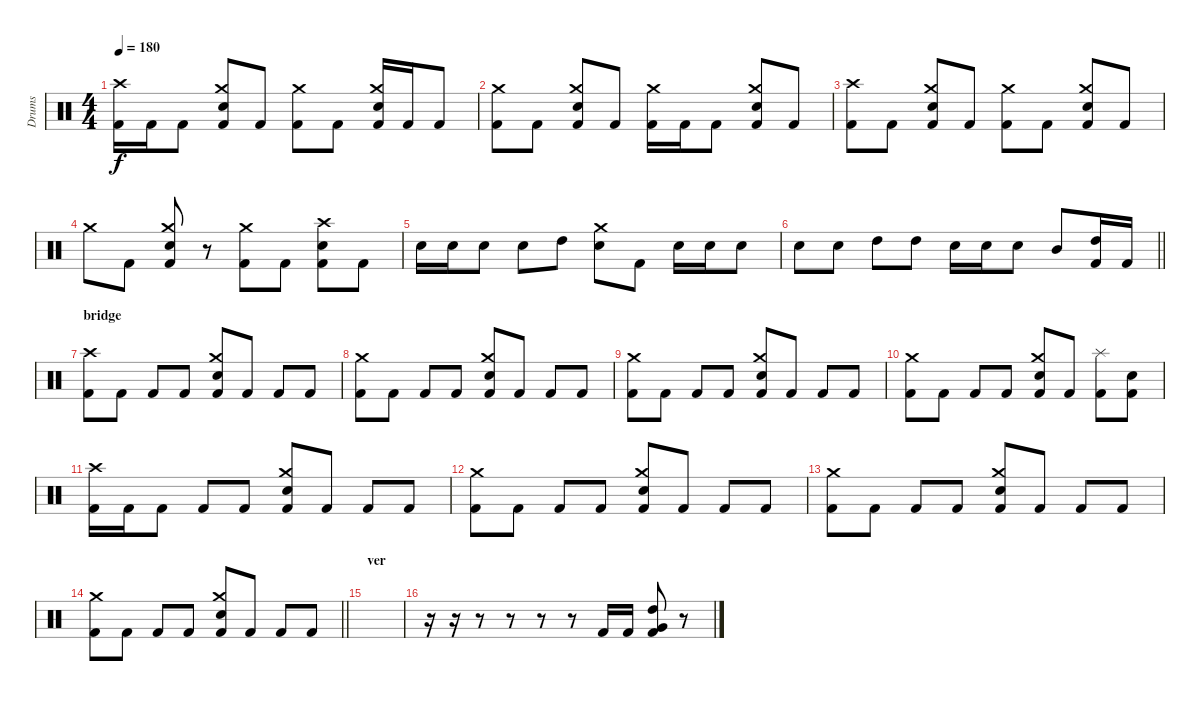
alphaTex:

\track ("Drums" "Drums") {instrument percussion}
\staff {score}
\articulation defaults
\ts (4 4)
\tempo 180
\clef neutral
\ks c
("Crash high (hit)" "Kick (hit) 2").16{dy f} "Kick (hit) 2".16 "Kick (hit) 2".8 ("Crash medium (hit)" "Electric Snare (hit)" "Kick (hit) 2").8 "Kick (hit) 2".8 ("Crash medium (hit)" "Kick (hit) 2").8 "Kick (hit) 2".8 ("Crash medium (hit)" "Electric Snare (hit)" "Kick (hit) 2").16 "Kick (hit) 2".16 "Kick (hit) 2".8 |
("Crash medium (hit)" "Kick (hit) 2").8 "Kick (hit) 2".8 ("Crash medium (hit)" "Electric Snare (hit)" "Kick (hit) 2").8 "Kick (hit) 2".8 ("Crash medium (hit)" "Kick (hit) 2").16 "Kick (hit) 2".16 "Kick (hit) 2".8 ("Crash medium (hit)" "Electric Snare (hit)" "Kick (hit) 2").8 "Kick (hit) 2".8 |
("Crash high (hit)" "Kick (hit) 2").8 "Kick (hit) 2".8 ("Crash medium (hit)" "Electric Snare (hit)" "Kick (hit) 2").8 "Kick (hit) 2".8 ("Crash medium (hit)" "Kick (hit) 2").8 "Kick (hit) 2".8 ("Crash medium (hit)" "Electric Snare (hit)" "Kick (hit) 2").8 "Kick (hit) 2".8 |
"Crash medium (hit)".8 "Kick (hit) 2".8 ("Crash medium (hit)" "Electric Snare (hit)" "Kick (hit) 2").8 r.8 ("Crash medium (hit)" "Kick (hit) 2").8 "Kick (hit) 2".8 ("Crash high (hit)" "Electric Snare (hit)" "Kick (hit) 2").8 "Kick (hit) 2".8 |
"Electric Snare (hit)".16 "Electric Snare (hit)".16 "Electric Snare (hit)".8 "Electric Snare (hit)".8 "High Tom (hit)".8 ("Crash medium (hit)" "Electric Snare (hit)").8 "Kick (hit) 2".8 "Electric Snare (hit)".16 "Electric Snare (hit)".16 "Electric Snare (hit)".8 |
\barLineRight lightlight "Electric Snare (hit)".8 "Electric Snare (hit)".8 "High Tom (hit)".8 "High Tom (hit)".8 "Electric Snare (hit)".16 "Electric Snare (hit)".16 "Electric Snare (hit)".8 "Mid Tom (hit)".8
("High Tom (hit)" "Kick (hit) 2").16 "Kick (hit) 2".16 |
\section ("" "bridge")
("Crash high (hit)" "Kick (hit) 2").8 "Kick (hit) 2".8 "Kick (hit) 2".8 "Kick (hit) 2".8 ("Crash medium (hit)" "Electric Snare (hit)" "Kick (hit) 2").8 "Kick (hit) 2".8 "Kick (hit) 2".8 "Kick (hit) 2".8 |
("Crash medium (hit)" "Kick (hit) 2").8 "Kick (hit) 2".8 "Kick (hit) 2".8 "Kick (hit) 2".8 ("Crash medium (hit)" "Electric Snare (hit)" "Kick (hit) 2").8 "Kick (hit) 2".8 "Kick (hit) 2".8 "Kick (hit) 2".8 |
("Crash medium (hit)" "Kick (hit) 2").8 "Kick (hit) 2".8 "Kick (hit) 2".8 "Kick (hit) 2".8 ("Crash medium (hit)" "Electric Snare (hit)" "Kick (hit) 2").8 "Kick (hit) 2".8 "Kick (hit) 2".8 "Kick (hit) 2".8 |
("Crash medium (hit)" "Kick (hit) 2").8 "Kick (hit) 2".8 "Kick (hit) 2".8 "Kick (hit) 2".8 ("Crash medium (hit)" "Electric Snare (hit)" "Kick (hit) 2").8 "Kick (hit) 2".8 ("Splash (hit)" "Kick (hit) 2").8 ("Electric Snare (hit)" "Kick (hit) 2").8 |
("Crash high (hit)" "Kick (hit) 2").16 "Kick (hit) 2".16 "Kick (hit) 2".8 "Kick (hit) 2".8 "Kick (hit) 2".8 ("Crash medium (hit)" "Electric Snare (hit)" "Kick (hit) 2").8 "Kick (hit) 2".8 "Kick (hit) 2".8 "Kick (hit) 2".8 |
("Crash medium (hit)" "Kick (hit) 2").8 "Kick (hit) 2".8 "Kick (hit) 2".8 "Kick (hit) 2".8 ("Crash medium (hit)" "Electric Snare (hit)" "Kick (hit) 2").8 "Kick (hit) 2".8 "Kick (hit) 2".8 "Kick (hit) 2".8 |
("Crash medium (hit)" "Kick (hit) 2").8 "Kick (hit) 2".8 "Kick (hit) 2".8 "Kick (hit) 2".8 ("Crash medium (hit)" "Electric Snare (hit)" "Kick (hit) 2").8 "Kick (hit) 2".8 "Kick (hit) 2".8 "Kick (hit) 2".8 |
\barLineRight lightlight
("Crash medium (hit)" "Kick (hit) 2").8 "Kick (hit) 2".8 "Kick (hit) 2".8 "Kick (hit) 2".8 ("Crash medium (hit)" "Electric Snare (hit)" "Kick (hit) 2").8 "Kick (hit) 2".8 "Kick (hit) 2".8 "Kick (hit) 2".8 |
\section ("" "ver")
|
r.16 r.16 r.8 r.8 r.8 r.8 "Kick (hit) 2".16 "Kick (hit) 2".16 ("High Tom (hit)" "Very Low Tom (hit)" "Kick (hit) 2").8 r.8
